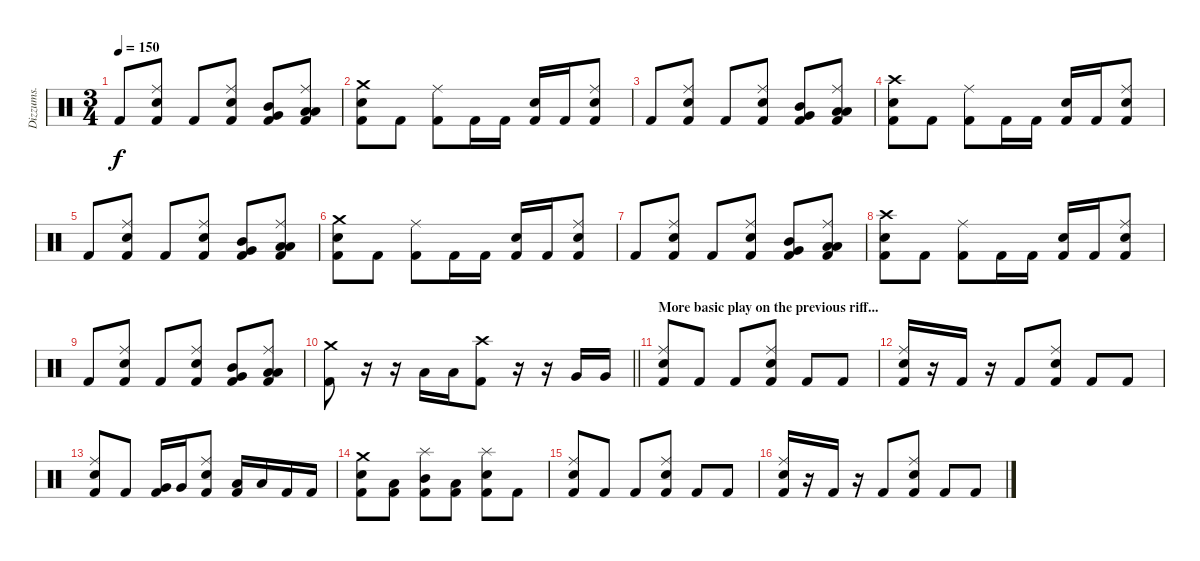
\track ("Dizzums." "Dizzums.") {instrument percussion}
\staff {score}
\articulation defaults
\ts (3 4)
\tempo 150
\clef neutral
\ks c "Kick (hit) 2".8{dy f}
("Ride (middle)" "Electric Snare (hit)" "Kick (hit) 2").8 "Kick (hit) 2".8 ("Ride (middle)" "Electric Snare (hit)" "Kick (hit) 2").8 ("Mid Tom (hit)" "Very Low Tom (hit)" "Kick (hit) 2").8 ("Ride (middle)" "Low Tom (hit)" "Low Floor Tom (hit)" "Kick (hit) 2").8 |
("Crash medium (hit)" "Electric Snare (hit)" "Kick (hit) 2").8 "Kick (hit) 2".8 ("Ride (middle)" "Kick (hit) 2").8 "Kick (hit) 2".16 "Kick (hit) 2".16 ("Electric Snare (hit)" "Kick (hit) 2").16 "Kick (hit) 2".16 ("Ride (middle)" "Electric Snare (hit)" "Kick (hit) 2").8 |
"Kick (hit) 2".8 ("Ride (middle)" "Electric Snare (hit)" "Kick (hit) 2").8 "Kick (hit) 2".8 ("Ride (middle)" "Electric Snare (hit)" "Kick (hit) 2").8 ("Mid Tom (hit)" "Very Low Tom (hit)" "Kick (hit) 2").8 ("Ride (middle)" "Low Tom (hit)" "Low Floor Tom (hit)" "Kick (hit) 2").8 |
("Crash high (hit)" "Electric Snare (hit)" "Kick (hit) 2").8 "Kick (hit) 2".8 ("Ride (middle)" "Kick (hit) 2").8 "Kick (hit) 2".16 "Kick (hit) 2".16 ("Electric Snare (hit)" "Kick (hit) 2").16 "Kick (hit) 2".16 ("Ride (middle)" "Electric Snare (hit)" "Kick (hit) 2").8 |
"Kick (hit) 2".8 ("Ride (middle)" "Electric Snare (hit)" "Kick (hit) 2").8 "Kick (hit) 2".8 ("Ride (middle)" "Electric Snare (hit)" "Kick (hit) 2").8 ("Mid Tom (hit)" "Very Low Tom (hit)" "Kick (hit) 2").8 ("Ride (middle)" "Low Tom (hit)" "Low Floor Tom (hit)" "Kick (hit) 2").8 |
("Crash medium (hit)" "Electric Snare (hit)" "Kick (hit) 2").8 "Kick (hit) 2".8 ("Ride (middle)" "Kick (hit) 2").8 "Kick (hit) 2".16 "Kick (hit) 2".16 ("Electric Snare (hit)" "Kick (hit) 2").16 "Kick (hit) 2".16 ("Ride (middle)" "Electric Snare (hit)" "Kick (hit) 2").8 |
"Kick (hit) 2".8 ("Ride (middle)" "Electric Snare (hit)" "Kick (hit) 2").8 "Kick (hit) 2".8 ("Ride (middle)" "Electric Snare (hit)" "Kick (hit) 2").8 ("Mid Tom (hit)" "Very Low Tom (hit)" "Kick (hit) 2").8 ("Ride (middle)" "Low Tom (hit)" "Low Floor Tom (hit)" "Kick (hit) 2").8 |
("Crash high (hit)" "Electric Snare (hit)" "Kick (hit) 2").8 "Kick (hit) 2".8 ("Ride (middle)" "Kick (hit) 2").8 "Kick (hit) 2".16 "Kick (hit) 2".16 ("Electric Snare (hit)" "Kick (hit) 2").16 "Kick (hit) 2".16 ("Ride (middle)" "Electric Snare (hit)" "Kick (hit) 2").8 |
"Kick (hit) 2".8 ("Ride (middle)" "Electric Snare (hit)" "Kick (hit) 2").8 "Kick (hit) 2".8 ("Ride (middle)" "Electric Snare (hit)" "Kick (hit) 2").8 ("Mid Tom (hit)" "Very Low Tom (hit)" "Kick (hit) 2").8 ("Ride (middle)" "Low Tom (hit)" "Low Floor Tom (hit)" "Kick (hit) 2").8 |
\barLineRight lightlight
("Crash medium (hit)" "Kick (hit) 2").8 r.16 r.16 "Low Tom (hit)".16 "Low Tom (hit)".16 ("Crash high (hit)" "Kick (hit) 2").8 r.16 r.16 "Very Low Tom (hit)".16 "Very Low Tom (hit)".16 |
\section ("" "More basic play on the previous riff...")
("Ride (middle)" "Electric Snare (hit)" "Kick (hit) 2").8 "Kick (hit) 2".8 "Kick (hit) 2".8 ("Ride (middle)" "Electric Snare (hit)" "Kick (hit) 2").8 "Kick (hit) 2".8 "Kick (hit) 2".8 |
("Ride (middle)" "Electric Snare (hit)" "Kick (hit) 2").16 r.16 "Kick (hit) 2".16 r.16 "Kick (hit) 2".8 ("Ride (middle)" "Electric Snare (hit)" "Kick (hit) 2").8 "Kick (hit) 2".8 "Kick (hit) 2".8 |
("Ride (middle)" "Electric Snare (hit)" "Kick (hit) 2").8 "Kick (hit) 2".8 ("Very Low Tom (hit)" "Kick (hit) 2").16 "Very Low Tom (hit)".16 ("Ride (middle)" "Electric Snare (hit)" "Kick (hit) 2").8 ("Low Floor Tom (hit)" "Kick (hit) 2").16 "Low Floor Tom (hit)".16 "Kick (hit) 2".16 "Kick (hit) 2".16 |
("Crash medium (hit)" "Electric Snare (hit)" "Kick (hit) 2").8 ("Low Tom (hit)" "Kick (hit) 2").8 ("Splash (hit)" "Mid Tom (hit)" "Kick (hit) 2").8 ("Low Tom (hit)" "Kick (hit) 2").8 ("Splash (hit)" "Electric Snare (hit)" "Kick (hit) 2").8 "Kick (hit) 2".8 |
("Ride (middle)" "Electric Snare (hit)" "Kick (hit) 2").8 "Kick (hit) 2".8 "Kick (hit) 2".8 ("Ride (middle)" "Electric Snare (hit)" "Kick (hit) 2").8 "Kick (hit) 2".8 "Kick (hit) 2".8 |
("Ride (middle)" "Electric Snare (hit)" "Kick (hit) 2").16 r.16 "Kick (hit) 2".16 r.16 "Kick (hit) 2".8 ("Ride (middle)" "Electric Snare (hit)" "Kick (hit) 2").8 "Kick (hit) 2".8 "Kick (hit) 2".8
